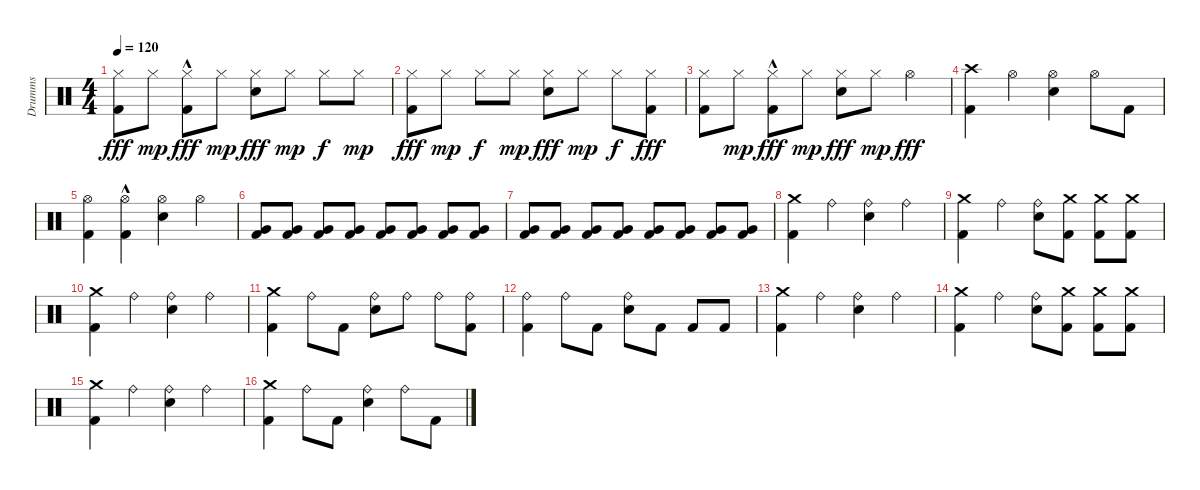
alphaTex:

\track ("Drumms" "Drumms") {instrument percussion}
\staff {score}
\articulation defaults
\ts (4 4)
\tempo 120
\clef neutral
\ks c
("Hi-Hat (closed)" "Kick (hit) 2").8{dy fff} "Hi-Hat (closed)".8{dy mp} ("Hi-Hat (closed)" "Kick (hit) 2"{hac}).8{dy fff} "Hi-Hat (closed)".8{dy mp} ("Hi-Hat (closed)" "Snare (hit) 2").8{dy fff} "Hi-Hat (closed)".8{dy mp} "Hi-Hat (closed)".8{dy f} "Hi-Hat (closed)".8{dy mp} |
("Hi-Hat (closed)" "Kick (hit) 2").8{dy fff} "Hi-Hat (closed)".8{dy mp} "Hi-Hat (closed)".8{dy f} "Hi-Hat (closed)".8{dy mp} ("Hi-Hat (closed)" "Snare (hit) 2").8{dy fff} "Hi-Hat (closed)".8{dy mp} "Hi-Hat (closed)".8{dy f} ("Hi-Hat (closed)" "Kick (hit) 2").8{dy fff} |
("Hi-Hat (closed)" "Kick (hit) 2").8 "Hi-Hat (closed)".8{dy mp} ("Hi-Hat (closed)" "Kick (hit) 2"{hac}).8{dy fff} "Hi-Hat (closed)".8{dy mp} ("Hi-Hat (closed)" "Snare (hit) 2").8{dy fff} "Hi-Hat (closed)".8{dy mp} "Hi-Hat (open)".4{dy fff} |
("Crash high (hit)" "Kick (hit) 2").4 "Hi-Hat (open)".4 ("Hi-Hat (open)" "Snare (hit) 2").4 "Hi-Hat (open)".8 "Kick (hit) 2".8 |
("Hi-Hat (open)" "Kick (hit) 2").4 ("Hi-Hat (open)" "Kick (hit) 2"{hac}).4 ("Hi-Hat (open)" "Snare (hit) 2").4 "Hi-Hat (open)".4 |
("Kick (hit) 2" "Very Low Tom (hit)").8 ("Kick (hit) 2" "Very Low Tom (hit)").8 ("Kick (hit) 2" "Very Low Tom (hit)").8 ("Kick (hit) 2" "Very Low Tom (hit)").8 ("Kick (hit) 2" "Very Low Tom (hit)").8 ("Kick (hit) 2" "Very Low Tom (hit)").8 ("Kick (hit) 2" "Very Low Tom (hit)").8 ("Kick (hit) 2" "Very Low Tom (hit)").8 |
("Kick (hit) 2" "Very Low Tom (hit)").8 ("Kick (hit) 2" "Very Low Tom (hit)").8 ("Kick (hit) 2" "Very Low Tom (hit)").8 ("Kick (hit) 2" "Very Low Tom (hit)").8 ("Kick (hit) 2" "Very Low Tom (hit)").8 ("Kick (hit) 2" "Very Low Tom (hit)").8 ("Kick (hit) 2" "Very Low Tom (hit)").8 ("Kick (hit) 2" "Very Low Tom (hit)").8 |
("Kick (hit) 2" "Crash medium (hit)").4 "Ride (bell)".4 ("Snare (hit) 2" "Ride (bell)").4 "Ride (bell)".4 |
("Kick (hit) 2" "Crash medium (hit)").4 "Ride (bell)".4 ("Snare (hit) 2" "Ride (bell)").8 ("Kick (hit) 2" "Crash medium (hit)").8 ("Kick (hit) 2" "Crash medium (hit)").8 ("Kick (hit) 2" "Crash medium (hit)").8 |
("Kick (hit) 2" "Crash medium (hit)").4 "Ride (bell)".4 ("Snare (hit) 2" "Ride (bell)").4 "Ride (bell)".4 |
("Kick (hit) 2" "Crash medium (hit)").4 "Ride (bell)".8 "Kick (hit) 2".8 ("Ride (bell)" "Snare (hit) 2").8 "Ride (bell)".8 "Ride (bell)".8 ("Kick (hit) 2" "Ride (bell)").8 |
("Ride (bell)" "Kick (hit) 2").4 "Ride (bell)".8 "Kick (hit) 2".8 ("Ride (bell)" "Snare (hit) 2").8 "Kick (hit) 2".8 "Kick (hit) 2".8 "Kick (hit) 2".8 |
("Kick (hit) 2" "Crash medium (hit)").4 "Ride (bell)".4 ("Snare (hit) 2" "Ride (bell)").4 "Ride (bell)".4 |
("Kick (hit) 2" "Crash medium (hit)").4 "Ride (bell)".4 ("Snare (hit) 2" "Ride (bell)").8 ("Kick (hit) 2" "Crash medium (hit)").8 ("Kick (hit) 2" "Crash medium (hit)").8 ("Kick (hit) 2" "Crash medium (hit)").8 |
("Kick (hit) 2" "Crash medium (hit)").4 "Ride (bell)".4 ("Snare (hit) 2" "Ride (bell)").4 "Ride (bell)".4 |
("Crash medium (hit)" "Kick (hit) 2").4 "Ride (bell)".8 "Kick (hit) 2".8 ("Ride (bell)" "Snare (hit) 2").4 "Ride (bell)".8 "Kick (hit) 2".8
